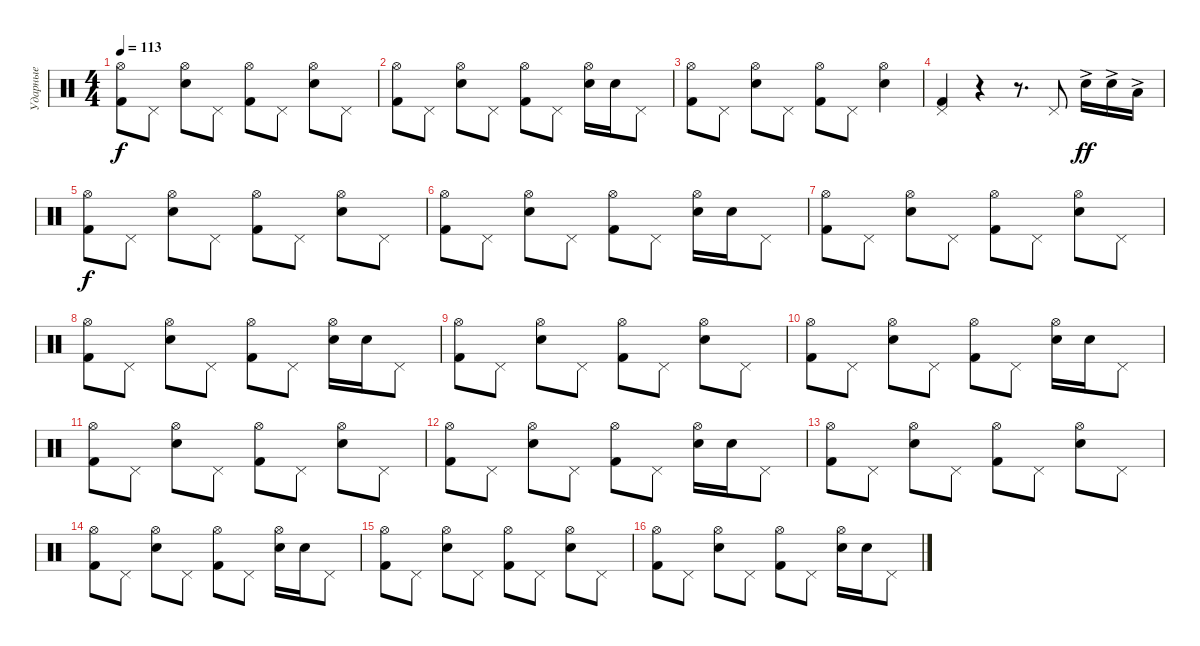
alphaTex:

\track ("Ударные" "Ударные") {instrument percussion}
\staff {score}
\articulation defaults
\ts (4 4)
\tempo 113
\clef neutral
\ks c
("Kick (hit) 2" "Hi-Hat (open)").8{dy f} "Pedal Hi-Hat (hit)".8 ("Electric Snare (hit)" "Hi-Hat (open)").8 "Pedal Hi-Hat (hit)".8 ("Kick (hit) 2" "Hi-Hat (open)").8 "Pedal Hi-Hat (hit)".8 ("Electric Snare (hit)" "Hi-Hat (open)").8 "Pedal Hi-Hat (hit)".8 |
("Kick (hit) 2" "Hi-Hat (open)").8 "Pedal Hi-Hat (hit)".8 ("Electric Snare (hit)" "Hi-Hat (open)").8 "Pedal Hi-Hat (hit)".8 ("Kick (hit) 2" "Hi-Hat (open)").8 "Pedal Hi-Hat (hit)".8 ("Electric Snare (hit)" "Hi-Hat (open)").16 "Electric Snare (hit)".16 "Pedal Hi-Hat (hit)".8 |
("Kick (hit) 2" "Hi-Hat (open)").8 "Pedal Hi-Hat (hit)".8 ("Electric Snare (hit)" "Hi-Hat (open)").8 "Pedal Hi-Hat (hit)".8 ("Kick (hit) 2" "Hi-Hat (open)").8 "Pedal Hi-Hat (hit)".8 ("Electric Snare (hit)" "Hi-Hat (open)").4 |
("Kick (hit) 2" "Pedal Hi-Hat (hit)").4 r.4 r.8{d} "Pedal Hi-Hat (hit)".8 "Electric Snare (hit)"{ac}.16{dy ff} "Electric Snare (hit)"{ac}.16 "Low Tom (hit)"{ac}.16 |
("Kick (hit) 2" "Hi-Hat (open)").8{dy f} "Pedal Hi-Hat (hit)".8 ("Electric Snare (hit)" "Hi-Hat (open)").8 "Pedal Hi-Hat (hit)".8 ("Kick (hit) 2" "Hi-Hat (open)").8 "Pedal Hi-Hat (hit)".8 ("Electric Snare (hit)" "Hi-Hat (open)").8 "Pedal Hi-Hat (hit)".8 |
("Kick (hit) 2" "Hi-Hat (open)").8 "Pedal Hi-Hat (hit)".8 ("Electric Snare (hit)" "Hi-Hat (open)").8 "Pedal Hi-Hat (hit)".8 ("Kick (hit) 2" "Hi-Hat (open)").8 "Pedal Hi-Hat (hit)".8 ("Electric Snare (hit)" "Hi-Hat (open)").16 "Electric Snare (hit)".16 "Pedal Hi-Hat (hit)".8 |
("Kick (hit) 2" "Hi-Hat (open)").8 "Pedal Hi-Hat (hit)".8 ("Electric Snare (hit)" "Hi-Hat (open)").8 "Pedal Hi-Hat (hit)".8 ("Kick (hit) 2" "Hi-Hat (open)").8 "Pedal Hi-Hat (hit)".8 ("Electric Snare (hit)" "Hi-Hat (open)").8 "Pedal Hi-Hat (hit)".8 |
("Kick (hit) 2" "Hi-Hat (open)").8 "Pedal Hi-Hat (hit)".8 ("Electric Snare (hit)" "Hi-Hat (open)").8 "Pedal Hi-Hat (hit)".8 ("Kick (hit) 2" "Hi-Hat (open)").8 "Pedal Hi-Hat (hit)".8 ("Electric Snare (hit)" "Hi-Hat (open)").16 "Electric Snare (hit)".16 "Pedal Hi-Hat (hit)".8 |
("Kick (hit) 2" "Hi-Hat (open)").8 "Pedal Hi-Hat (hit)".8 ("Electric Snare (hit)" "Hi-Hat (open)").8 "Pedal Hi-Hat (hit)".8 ("Kick (hit) 2" "Hi-Hat (open)").8 "Pedal Hi-Hat (hit)".8 ("Electric Snare (hit)" "Hi-Hat (open)").8 "Pedal Hi-Hat (hit)".8 |
("Kick (hit) 2" "Hi-Hat (open)").8 "Pedal Hi-Hat (hit)".8 ("Electric Snare (hit)" "Hi-Hat (open)").8 "Pedal Hi-Hat (hit)".8 ("Kick (hit) 2" "Hi-Hat (open)").8 "Pedal Hi-Hat (hit)".8 ("Electric Snare (hit)" "Hi-Hat (open)").16 "Electric Snare (hit)".16 "Pedal Hi-Hat (hit)".8 |
("Kick (hit) 2" "Hi-Hat (open)").8 "Pedal Hi-Hat (hit)".8 ("Electric Snare (hit)" "Hi-Hat (open)").8 "Pedal Hi-Hat (hit)".8 ("Kick (hit) 2" "Hi-Hat (open)").8 "Pedal Hi-Hat (hit)".8 ("Electric Snare (hit)" "Hi-Hat (open)").8 "Pedal Hi-Hat (hit)".8 |
("Kick (hit) 2" "Hi-Hat (open)").8 "Pedal Hi-Hat (hit)".8 ("Electric Snare (hit)" "Hi-Hat (open)").8 "Pedal Hi-Hat (hit)".8 ("Kick (hit) 2" "Hi-Hat (open)").8 "Pedal Hi-Hat (hit)".8 ("Electric Snare (hit)" "Hi-Hat (open)").16 "Electric Snare (hit)".16 "Pedal Hi-Hat (hit)".8 |
("Kick (hit) 2" "Hi-Hat (open)").8 "Pedal Hi-Hat (hit)".8 ("Electric Snare (hit)" "Hi-Hat (open)").8 "Pedal Hi-Hat (hit)".8 ("Kick (hit) 2" "Hi-Hat (open)").8 "Pedal Hi-Hat (hit)".8 ("Electric Snare (hit)" "Hi-Hat (open)").8 "Pedal Hi-Hat (hit)".8 |
("Kick (hit) 2" "Hi-Hat (open)").8 "Pedal Hi-Hat (hit)".8 ("Electric Snare (hit)" "Hi-Hat (open)").8 "Pedal Hi-Hat (hit)".8 ("Kick (hit) 2" "Hi-Hat (open)").8 "Pedal Hi-Hat (hit)".8 ("Electric Snare (hit)" "Hi-Hat (open)").16 "Electric Snare (hit)".16 "Pedal Hi-Hat (hit)".8 |
("Kick (hit) 2" "Hi-Hat (open)").8 "Pedal Hi-Hat (hit)".8 ("Electric Snare (hit)" "Hi-Hat (open)").8 "Pedal Hi-Hat (hit)".8 ("Kick (hit) 2" "Hi-Hat (open)").8 "Pedal Hi-Hat (hit)".8 ("Electric Snare (hit)" "Hi-Hat (open)").8 "Pedal Hi-Hat (hit)".8 |
("Kick (hit) 2" "Hi-Hat (open)").8 "Pedal Hi-Hat (hit)".8 ("Electric Snare (hit)" "Hi-Hat (open)").8 "Pedal Hi-Hat (hit)".8 ("Kick (hit) 2" "Hi-Hat (open)").8 "Pedal Hi-Hat (hit)".8 ("Electric Snare (hit)" "Hi-Hat (open)").16 "Electric Snare (hit)".16 "Pedal Hi-Hat (hit)".8
